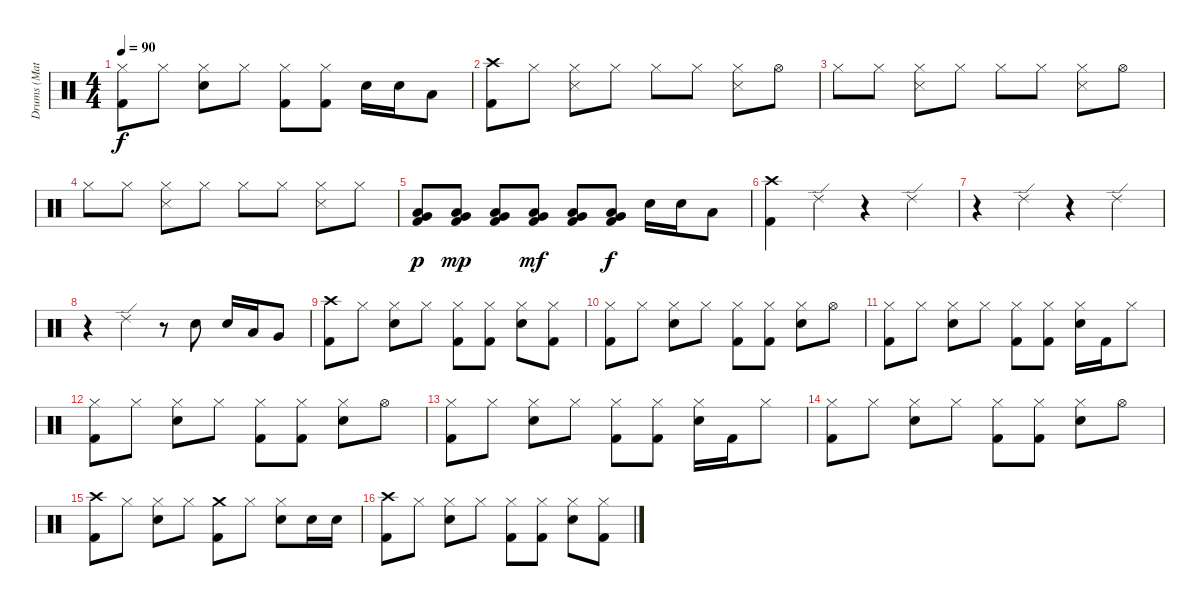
\track ("Drums (Matt)" "Drums (Mat") {instrument percussion}
\staff {score}
\articulation defaults
\ts (4 4)
\tempo 90
\clef neutral
\ks c
("Hi-Hat (closed)" "Kick (hit) 2").8{dy f} "Hi-Hat (closed)".8 ("Hi-Hat (closed)" "Snare (hit) 2").8 "Hi-Hat (closed)".8 ("Hi-Hat (closed)" "Kick (hit) 2").8 ("Hi-Hat (closed)" "Kick (hit) 2").8 "Snare (hit) 2".16 "Snare (hit) 2".16 "Low Tom (hit)".8 |
("Crash high (hit)" "Kick (hit) 2").8 "Hi-Hat (closed)".8 ("Hi-Hat (closed)" "Snare (side stick) 3").8 "Hi-Hat (closed)".8 "Hi-Hat (closed)".8 "Hi-Hat (closed)".8 ("Hi-Hat (closed)" "Snare (side stick) 3").8 "Hi-Hat (open)".8 |
"Hi-Hat (closed)".8 "Hi-Hat (closed)".8 ("Hi-Hat (closed)" "Snare (side stick) 3").8 "Hi-Hat (closed)".8 "Hi-Hat (closed)".8 "Hi-Hat (closed)".8 ("Hi-Hat (closed)" "Snare (side stick) 3").8 "Hi-Hat (open)".8 |
"Hi-Hat (closed)".8 "Hi-Hat (closed)".8 ("Hi-Hat (closed)" "Snare (side stick) 3").8 "Hi-Hat (closed)".8 "Hi-Hat (closed)".8 "Hi-Hat (closed)".8 ("Hi-Hat (closed)" "Snare (side stick) 3").8 "Hi-Hat (closed)".8 |
("Low Tom (hit)" "Very Low Tom (hit)" "Kick (hit) 2").8{dy p} ("Low Tom (hit)" "Very Low Tom (hit)" "Kick (hit) 2").8{dy mp} ("Low Tom (hit)" "Very Low Tom (hit)" "Kick (hit) 2").8 ("Low Tom (hit)" "Very Low Tom (hit)" "Kick (hit) 2").8{dy mf} ("Low Tom (hit)" "Very Low Tom (hit)" "Kick (hit) 2").8 ("Low Tom (hit)" "Very Low Tom (hit)" "Kick (hit) 2").8{dy f} "Snare (hit) 2".16 "Snare (hit) 2".16 "Low Tom (hit)".8 |
("Crash high (hit)" "Kick (hit) 2").4 "Ride (edge) 2".4 r.4 "Ride (edge) 2".4 |
r.4 "Ride (edge) 2".4 r.4 "Ride (edge) 2".4 |
r.4 "Ride (edge) 2".4 r.8 "Snare (hit) 2".8 "Snare (hit) 2".16 "Low Tom (hit)".16 "Very Low Tom (hit)".8 |
("Crash high (hit)" "Kick (hit) 2").8 "Hi-Hat (closed)".8 ("Hi-Hat (closed)" "Snare (hit) 2").8 "Hi-Hat (closed)".8 ("Hi-Hat (closed)" "Kick (hit) 2").8 ("Hi-Hat (closed)" "Kick (hit) 2").8 ("Hi-Hat (closed)" "Snare (hit) 2").8 ("Hi-Hat (closed)" "Kick (hit) 2").8 |
("Hi-Hat (closed)" "Kick (hit) 2").8 "Hi-Hat (closed)".8 ("Hi-Hat (closed)" "Snare (hit) 2").8 "Hi-Hat (closed)".8 ("Hi-Hat (closed)" "Kick (hit) 2").8 ("Hi-Hat (closed)" "Kick (hit) 2").8 ("Hi-Hat (closed)" "Snare (hit) 2").8 "Hi-Hat (open)".8 |
("Hi-Hat (closed)" "Kick (hit) 2").8 "Hi-Hat (closed)".8 ("Hi-Hat (closed)" "Snare (hit) 2").8 "Hi-Hat (closed)".8 ("Hi-Hat (closed)" "Kick (hit) 2").8 ("Hi-Hat (closed)" "Kick (hit) 2").8 ("Hi-Hat (closed)" "Snare (hit) 2").16 "Kick (hit) 2".16 "Hi-Hat (closed)".8 |
("Hi-Hat (closed)" "Kick (hit) 2").8 "Hi-Hat (closed)".8 ("Hi-Hat (closed)" "Snare (hit) 2").8 "Hi-Hat (closed)".8 ("Hi-Hat (closed)" "Kick (hit) 2").8 ("Hi-Hat (closed)" "Kick (hit) 2").8 ("Hi-Hat (closed)" "Snare (hit) 2").8 "Hi-Hat (open)".8 |
("Hi-Hat (closed)" "Kick (hit) 2").8 "Hi-Hat (closed)".8 ("Hi-Hat (closed)" "Snare (hit) 2").8 "Hi-Hat (closed)".8 ("Hi-Hat (closed)" "Kick (hit) 2").8 ("Hi-Hat (closed)" "Kick (hit) 2").8 ("Hi-Hat (closed)" "Snare (hit) 2").16 "Kick (hit) 2".16 "Hi-Hat (closed)".8 |
("Hi-Hat (closed)" "Kick (hit) 2").8 "Hi-Hat (closed)".8 ("Hi-Hat (closed)" "Snare (hit) 2").8 "Hi-Hat (closed)".8 ("Hi-Hat (closed)" "Kick (hit) 2").8 ("Hi-Hat (closed)" "Kick (hit) 2").8 ("Hi-Hat (closed)" "Snare (hit) 2").8 "Hi-Hat (open)".8 |
("Crash high (hit)" "Kick (hit) 2").8 "Hi-Hat (closed)".8 ("Hi-Hat (closed)" "Snare (hit) 2").8 "Hi-Hat (closed)".8 ("Crash medium (hit)" "Kick (hit) 2").8 "Hi-Hat (closed)".8 ("Hi-Hat (closed)" "Snare (hit) 2").8 "Snare (hit) 2".16 "Snare (hit) 2".16 |
("Crash high (hit)" "Kick (hit) 2").8 "Hi-Hat (closed)".8 ("Hi-Hat (closed)" "Snare (hit) 2").8 "Hi-Hat (closed)".8 ("Hi-Hat (closed)" "Kick (hit) 2").8 ("Hi-Hat (closed)" "Kick (hit) 2").8 ("Hi-Hat (closed)" "Snare (hit) 2").8 ("Hi-Hat (closed)" "Kick (hit) 2").8
